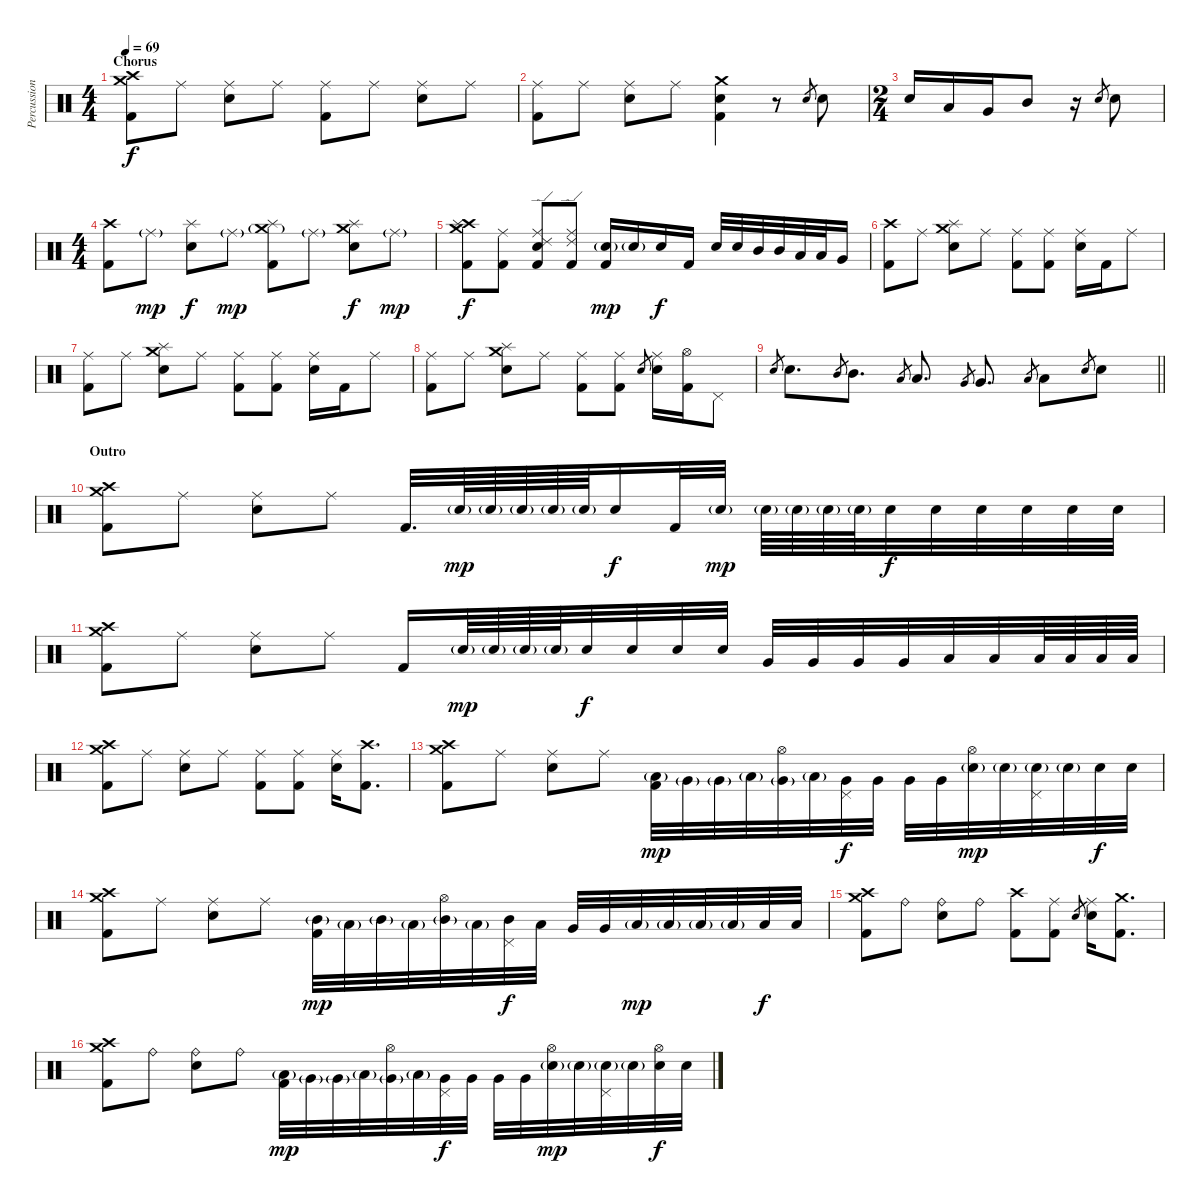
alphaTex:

\track ("Percussion" "Percussion") {instrument percussion}
\staff {score}
\articulation defaults
\ts (4 4)
\section ("" "Chorus")
\tempo 69
\clef neutral
\ks c
("Crash medium (hit)" "Crash high (hit)" "Kick (hit) 2").8{dy f} "Ride (middle)".8 ("Ride (middle)" "Snare (hit) 2").8 "Ride (middle)".8 ("Ride (middle)" "Kick (hit) 2").8 "Ride (middle)".8 ("Ride (middle)" "Snare (hit) 2").8 "Ride (middle)".8 |
("Ride (middle)" "Kick (hit) 2").8 "Ride (middle)".8 ("Ride (middle)" "Snare (hit) 2").8 "Ride (middle)".8 ("Crash medium (hit)" "Snare (hit) 2" "Kick (hit) 2").4 r.8 "Snare (hit) 2".8{gr} "Snare (hit) 2".8 |
\ts (2 4)
"Snare (hit) 2".16 "Low Tom (hit)".16 "Very Low Tom (hit)".16 "Mid Tom (hit)".8 r.16 "Snare (hit) 2".8{gr} "Snare (hit) 2".8 |
\ts (4 4)
("Crash high (hit)" "Kick (hit) 2").8 "Ride (middle)"{g}.8{dy mp} ("Splash (hit)" "Snare (hit) 2").8{dy f} "Ride (middle)"{g}.8{dy mp} ("Splash (hit)" "Crash medium (hit)"{g} "Kick (hit) 2").8 "Ride (middle)"{g}.8 ("Splash (hit)" "Crash medium (hit)" "Snare (hit) 2").8{dy f} "Ride (middle)"{g}.8{dy mp} |
("Crash medium (hit)" "Crash high (hit)" "Splash (hit)" "Kick (hit) 2").8{dy f} ("Ride (middle)" "Kick (hit) 2").8 ("Ride (middle)" "Ride (edge) 2" "Snare (hit) 2" "Kick (hit) 2").8 ("Ride (middle)" "Ride (edge) 2" "Kick (hit) 2").8 ("Snare (hit) 2"{g} "Kick (hit) 2").16{dy mp} "Snare (hit) 2"{g}.16 "Snare (hit) 2".16{dy f} "Kick (hit) 2".16 "Snare (hit) 2".32 "Snare (hit) 2".32 "Mid Tom (hit)".32 "Mid Tom (hit)".32 "Low Tom (hit)".32 "Low Tom (hit)".32 "Very Low Tom (hit)".16 |
("Crash high (hit)" "Kick (hit) 2").8 "Ride (middle)".8 ("Crash medium (hit)" "Splash (hit)" "Snare (hit) 2").8 "Ride (middle)".8 ("Ride (middle)" "Kick (hit) 2").8 ("Ride (middle)" "Kick (hit) 2").8 ("Ride (middle)" "Snare (hit) 2").16 "Kick (hit) 2".16 "Ride (middle)".8 |
("Ride (middle)" "Kick (hit) 2").8 "Ride (middle)".8 ("Crash medium (hit)" "Splash (hit)" "Snare (hit) 2").8 "Ride (middle)".8 ("Ride (middle)" "Kick (hit) 2").8 ("Ride (middle)" "Kick (hit) 2").8 ("Ride (middle)" "Snare (hit) 2").16 "Kick (hit) 2".16 "Ride (middle)".8 |
("Ride (middle)" "Kick (hit) 2").8 "Ride (middle)".8 ("Crash medium (hit)" "Splash (hit)" "Snare (hit) 2").8 "Ride (middle)".8 ("Ride (middle)" "Kick (hit) 2").8 ("Ride (middle)" "Kick (hit) 2").8 "Snare (hit) 2".8{gr} ("Ride (middle)" "Snare (hit) 2").16 ("Hi-Hat (open)" "Kick (hit) 2").16 "Pedal Hi-Hat (hit)".8 |
\barLineRight lightlight "Snare (hit) 2".8{gr} "Snare (hit) 2".8{d} "Mid Tom (hit)".8{gr} "Mid Tom (hit)".8{d} "Low Tom (hit)".8{gr} "Low Tom (hit)".8{d} "Very Low Tom (hit)".8{gr} "Very Low Tom (hit)".8{d} "Low Floor Tom (hit)".8{gr} "Low Floor Tom (hit)".8 "Snare (hit) 2".8{gr} "Snare (hit) 2".8
|
\section ("" "Outro")
("Crash medium (hit)" "Crash high (hit)" "Kick (hit) 2").8 "Ride (middle)".8 ("Ride (middle)" "Snare (hit) 2").8 "Ride (middle)".8 "Kick (hit) 2".32{d} "Snare (hit) 2"{g}.64{dy mp} "Snare (hit) 2"{g}.64 "Snare (hit) 2"{g}.64 "Snare (hit) 2"{g}.64 "Snare (hit) 2"{g}.64 "Snare (hit) 2".16{dy f} "Kick (hit) 2".32 "Snare (hit) 2"{g}.32{dy mp} "Snare (hit) 2"{g}.64 "Snare (hit) 2"{g}.64 "Snare (hit) 2"{g}.64 "Snare (hit) 2"{g}.64 "Snare (hit) 2".32{dy f} "Snare (hit) 2".32 "Snare (hit) 2".32 "Snare (hit) 2".32 "Snare (hit) 2".32 "Snare (hit) 2".32 |
("Crash medium (hit)" "Crash high (hit)" "Kick (hit) 2").8 "Ride (middle)".8 ("Ride (middle)" "Snare (hit) 2").8 "Ride (middle)".8 "Kick (hit) 2".16 "Snare (hit) 2"{g}.64{dy mp} "Snare (hit) 2"{g}.64 "Snare (hit) 2"{g}.64 "Snare (hit) 2"{g}.64 "Snare (hit) 2".32{dy f} "Snare (hit) 2".32 "Snare (hit) 2".32 "Snare (hit) 2".32 "Very Low Tom (hit)".32 "Very Low Tom (hit)".32 "Very Low Tom (hit)".32 "Very Low Tom (hit)".32 "Low Floor Tom (hit)".32 "Low Floor Tom (hit)".32 "Low Floor Tom (hit)".64 "Low Floor Tom (hit)".64 "Low Floor Tom (hit)".64 "Low Floor Tom (hit)".64 |
("Crash high (hit)" "Crash medium (hit)" "Kick (hit) 2").8 "Ride (middle)".8 ("Ride (middle)" "Snare (hit) 2").8 "Ride (middle)".8 ("Ride (middle)" "Kick (hit) 2").8 ("Ride (middle)" "Kick (hit) 2").8 ("Ride (middle)" "Snare (hit) 2").16 ("Crash high (hit)" "Kick (hit) 2").8{d} |
("Crash high (hit)" "Crash medium (hit)" "Kick (hit) 2").8 "Ride (middle)".8 ("Ride (middle)" "Snare (hit) 2").8 "Ride (middle)".8 ("Low Floor Tom (hit)"{g} "Kick (hit) 2").32{dy mp} "Very Low Tom (hit)"{g}.32 "Very Low Tom (hit)"{g}.32 "Low Floor Tom (hit)"{g}.32 ("Hi-Hat (open)" "Very Low Tom (hit)"{g}).32 "Low Floor Tom (hit)"{g}.32 ("Pedal Hi-Hat (hit)" "Very Low Tom (hit)").32{dy f} "Very Low Tom (hit)".32 "Very Low Tom (hit)".32 "Very Low Tom (hit)".32 ("Hi-Hat (open)" "Snare (hit) 2"{g}).32{dy mp} "Snare (hit) 2"{g}.32 ("Pedal Hi-Hat (hit)" "Snare (hit) 2"{g}).32 "Snare (hit) 2"{g}.32 "Snare (hit) 2".32{dy f} "Snare (hit) 2".32 |
("Crash high (hit)" "Crash medium (hit)" "Kick (hit) 2").8 "Ride (middle)".8 ("Ride (middle)" "Snare (hit) 2").8 "Ride (middle)".8 ("Mid Tom (hit)"{g} "Kick (hit) 2").32{dy mp} "Low Tom (hit)"{g}.32 "Mid Tom (hit)"{g}.32 "Low Tom (hit)"{g}.32 ("Hi-Hat (open)" "Mid Tom (hit)"{g}).32 "Low Tom (hit)"{g}.32 ("Pedal Hi-Hat (hit)" "Mid Tom (hit)").32{dy f} "Low Tom (hit)".32 "Very Low Tom (hit)".32 "Very Low Tom (hit)".32 "Low Floor Tom (hit)"{g}.32{dy mp} "Low Floor Tom (hit)"{g}.32 "Low Floor Tom (hit)"{g}.32 "Low Floor Tom (hit)"{g}.32 "Low Floor Tom (hit)".32{dy f} "Low Floor Tom (hit)".32 |
("Crash high (hit)" "Crash medium (hit)" "Kick (hit) 2").8 "Ride (bell)".8 ("Ride (bell)" "Snare (hit) 2").8 "Ride (bell)".8 ("Crash high (hit)" "Kick (hit) 2").8 ("Ride (middle)" "Kick (hit) 2").8 "Snare (hit) 2".8{gr} ("Ride (middle)" "Snare (hit) 2").16 ("Crash medium (hit)" "Kick (hit) 2").8{d} |
("Crash high (hit)" "Crash medium (hit)" "Kick (hit) 2").8 "Ride (bell)".8 ("Ride (bell)" "Snare (hit) 2").8 "Ride (bell)".8 ("Low Floor Tom (hit)"{g} "Kick (hit) 2").32{dy mp} "Very Low Tom (hit)"{g}.32 "Very Low Tom (hit)"{g}.32 "Low Floor Tom (hit)"{g}.32 ("Hi-Hat (open)" "Very Low Tom (hit)"{g}).32 "Low Floor Tom (hit)"{g}.32 ("Pedal Hi-Hat (hit)" "Very Low Tom (hit)").32{dy f} "Very Low Tom (hit)".32 "Very Low Tom (hit)".32 "Very Low Tom (hit)".32 ("Hi-Hat (open)" "Snare (hit) 2"{g}).32{dy mp} "Snare (hit) 2"{g}.32 ("Pedal Hi-Hat (hit)" "Snare (hit) 2"{g}).32 "Snare (hit) 2"{g}.32 ("Hi-Hat (open)" "Snare (hit) 2").32{dy f} "Snare (hit) 2".32
